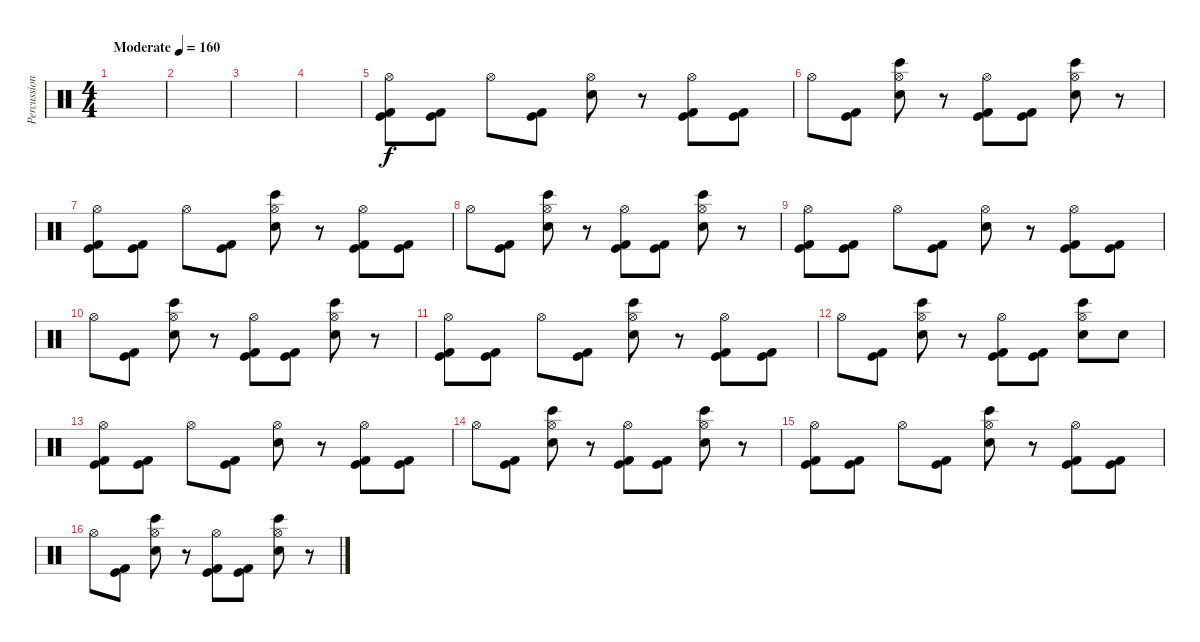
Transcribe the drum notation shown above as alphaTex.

\track ("Percussion" "Percussion") {instrument percussion}
\staff {score}
\articulation defaults
\ts (4 4)
\tempo (160 "Moderate")
\clef neutral
\ks c
|
|
|
|
("Hi-Hat (open)" "Kick (hit) 2" "Kick (hit)").8 ("Kick (hit) 2" "Kick (hit)").8 "Hi-Hat (open)".8 ("Kick (hit) 2" "Kick (hit)").8 ("Hi-Hat (open)" "Hand Clap (hit)").8 r.8 ("Hi-Hat (open)" "Kick (hit) 2" "Kick (hit)").8 ("Kick (hit) 2" "Kick (hit)").8 |
"Hi-Hat (open)".8 ("Kick (hit) 2" "Kick (hit)").8 ("Hi-Hat (open)" "Hand Clap (hit)" "Bongo High (hit)").8 r.8 ("Hi-Hat (open)" "Kick (hit) 2" "Kick (hit)").8 ("Kick (hit) 2" "Kick (hit)").8 ("Hi-Hat (open)" "Hand Clap (hit)" "Bongo High (hit)").8 r.8 |
("Hi-Hat (open)" "Kick (hit) 2" "Kick (hit)").8 ("Kick (hit) 2" "Kick (hit)").8 "Hi-Hat (open)".8 ("Kick (hit) 2" "Kick (hit)").8 ("Hi-Hat (open)" "Hand Clap (hit)" "Bongo High (hit)").8 r.8 ("Hi-Hat (open)" "Kick (hit) 2" "Kick (hit)").8 ("Kick (hit) 2" "Kick (hit)").8 |
"Hi-Hat (open)".8 ("Kick (hit) 2" "Kick (hit)").8 ("Hi-Hat (open)" "Hand Clap (hit)" "Bongo High (hit)").8 r.8 ("Hi-Hat (open)" "Kick (hit) 2" "Kick (hit)").8 ("Kick (hit) 2" "Kick (hit)").8 ("Hi-Hat (open)" "Hand Clap (hit)" "Bongo High (hit)").8 r.8 |
("Hi-Hat (open)" "Kick (hit) 2" "Kick (hit)").8 ("Kick (hit) 2" "Kick (hit)").8 "Hi-Hat (open)".8 ("Kick (hit) 2" "Kick (hit)").8 ("Hi-Hat (open)" "Hand Clap (hit)").8 r.8 ("Hi-Hat (open)" "Kick (hit) 2" "Kick (hit)").8 ("Kick (hit) 2" "Kick (hit)").8 |
"Hi-Hat (open)".8 ("Kick (hit) 2" "Kick (hit)").8 ("Hi-Hat (open)" "Hand Clap (hit)" "Bongo High (hit)").8 r.8 ("Hi-Hat (open)" "Kick (hit) 2" "Kick (hit)").8 ("Kick (hit) 2" "Kick (hit)").8 ("Hi-Hat (open)" "Hand Clap (hit)" "Bongo High (hit)").8 r.8 |
("Hi-Hat (open)" "Kick (hit) 2" "Kick (hit)").8 ("Kick (hit) 2" "Kick (hit)").8 "Hi-Hat (open)".8 ("Kick (hit) 2" "Kick (hit)").8 ("Hi-Hat (open)" "Hand Clap (hit)" "Bongo High (hit)").8 r.8 ("Hi-Hat (open)" "Kick (hit) 2" "Kick (hit)").8 ("Kick (hit) 2" "Kick (hit)").8 |
"Hi-Hat (open)".8 ("Kick (hit) 2" "Kick (hit)").8 ("Hi-Hat (open)" "Hand Clap (hit)" "Bongo High (hit)").8 r.8 ("Hi-Hat (open)" "Kick (hit) 2" "Kick (hit)").8 ("Kick (hit) 2" "Kick (hit)").8 ("Hi-Hat (open)" "Hand Clap (hit)" "Bongo High (hit)").8 "Hand Clap (hit)".8 |
("Hi-Hat (open)" "Kick (hit) 2" "Kick (hit)").8 ("Kick (hit) 2" "Kick (hit)").8 "Hi-Hat (open)".8 ("Kick (hit) 2" "Kick (hit)").8 ("Hi-Hat (open)" "Hand Clap (hit)").8 r.8 ("Hi-Hat (open)" "Kick (hit) 2" "Kick (hit)").8 ("Kick (hit) 2" "Kick (hit)").8 |
"Hi-Hat (open)".8 ("Kick (hit) 2" "Kick (hit)").8 ("Hi-Hat (open)" "Hand Clap (hit)" "Bongo High (hit)").8 r.8 ("Hi-Hat (open)" "Kick (hit) 2" "Kick (hit)").8 ("Kick (hit) 2" "Kick (hit)").8 ("Hi-Hat (open)" "Hand Clap (hit)" "Bongo High (hit)").8 r.8 |
("Hi-Hat (open)" "Kick (hit) 2" "Kick (hit)").8 ("Kick (hit) 2" "Kick (hit)").8 "Hi-Hat (open)".8 ("Kick (hit) 2" "Kick (hit)").8 ("Hi-Hat (open)" "Hand Clap (hit)" "Bongo High (hit)").8 r.8 ("Hi-Hat (open)" "Kick (hit) 2" "Kick (hit)").8 ("Kick (hit) 2" "Kick (hit)").8 |
"Hi-Hat (open)".8 ("Kick (hit) 2" "Kick (hit)").8 ("Hi-Hat (open)" "Hand Clap (hit)" "Bongo High (hit)").8 r.8 ("Hi-Hat (open)" "Kick (hit) 2" "Kick (hit)").8 ("Kick (hit) 2" "Kick (hit)").8 ("Hi-Hat (open)" "Hand Clap (hit)" "Bongo High (hit)").8 r.8
